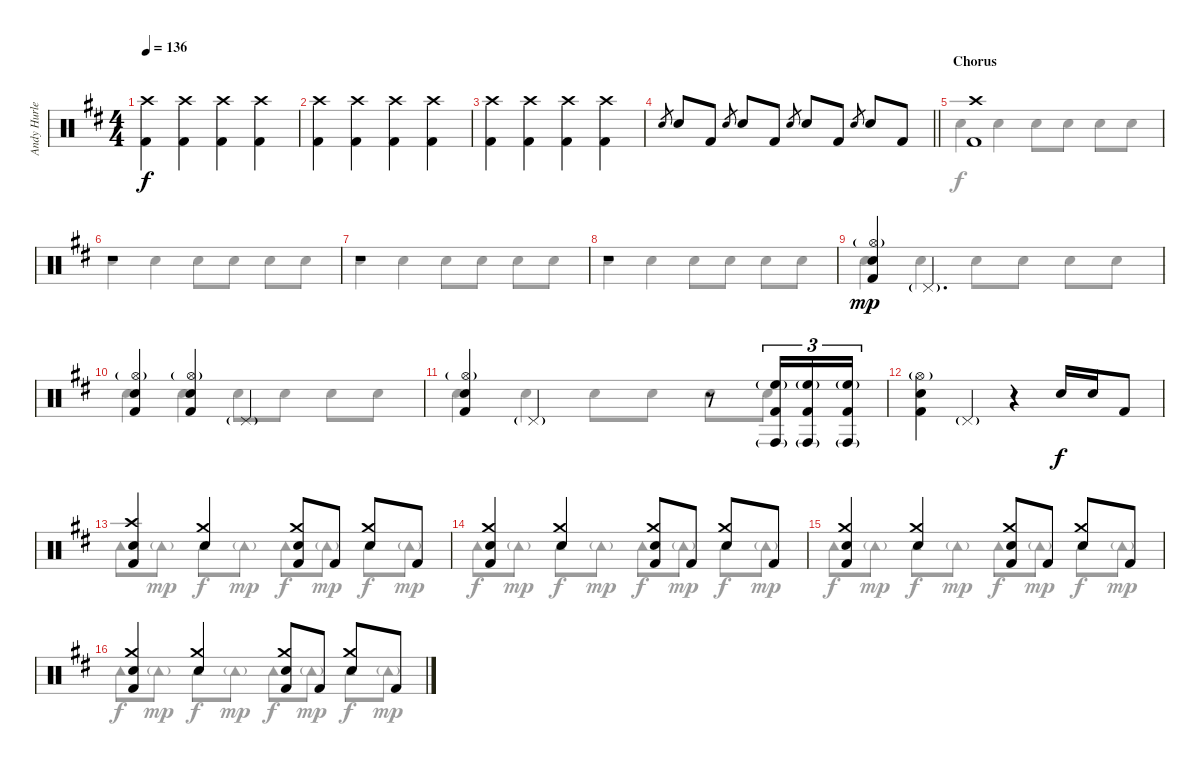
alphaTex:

\track ("Andy Hurley" "Andy Hurle") {instrument percussion}
\staff {score}
\articulation defaults
\voice
\ts (4 4)
\tempo 136
\clef neutral
\ks d
("Crash high (hit)" "Kick (hit) 2").4{dy f} ("Crash high (hit)" "Kick (hit) 2").4 ("Crash high (hit)" "Kick (hit) 2").4 ("Crash high (hit)" "Kick (hit) 2").4 |
("Crash high (hit)" "Kick (hit) 2").4 ("Crash high (hit)" "Kick (hit) 2").4 ("Crash high (hit)" "Kick (hit) 2").4 ("Crash high (hit)" "Kick (hit) 2").4 |
("Crash high (hit)" "Kick (hit) 2").4 ("Crash high (hit)" "Kick (hit) 2").4 ("Crash high (hit)" "Kick (hit) 2").4 ("Crash high (hit)" "Kick (hit) 2").4 |
\barLineRight lightlight "Snare (hit) 2".8{gr} "Snare (hit) 2".8 "Kick (hit) 2".8 "Snare (hit) 2".8{gr} "Snare (hit) 2".8 "Kick (hit) 2".8 "Snare (hit) 2".8{gr} "Snare (hit) 2".8 "Kick (hit) 2".8 "Snare (hit) 2".8{gr} "Snare (hit) 2".8 "Kick (hit) 2".8
|
\section ("" "Chorus")
("Crash high (hit)" "Kick (hit) 2").1 |
r.1 |
r.1 |
r.1 |
("Hi-Hat (open)"{g} "Snare (hit) 2" "Kick (hit) 2").4{dy mp} "Pedal Hi-Hat (hit)"{g}.2{d} |
("Hi-Hat (open)"{g} "Snare (hit) 2" "Kick (hit) 2").4 ("Hi-Hat (open)"{g} "Snare (hit) 2" "Kick (hit) 2").4 "Pedal Hi-Hat (hit)"{g}.2 |
("Hi-Hat (open)"{g} "Snare (hit) 2" "Kick (hit) 2").4 "Pedal Hi-Hat (hit)"{g}.2 r.8 ("High Floor Tom (hit)"{g} "Conga high (hit)"{g} "Kick (hit) 2").16{tu (3 2)} ("High Floor Tom (hit)"{g} "Conga high (hit)"{g} "Kick (hit) 2").16{tu (3 2)} ("High Floor Tom (hit)"{g} "Conga high (hit)"{g} "Kick (hit) 2").16{tu (3 2)} |
("Hi-Hat (open)"{g} "Snare (hit) 2" "Kick (hit) 2").4 "Pedal Hi-Hat (hit)"{g}.4 r.4 "Snare (hit) 2".16{dy f} "Snare (hit) 2".16 "Kick (hit) 2".8 |
("Crash high (hit)" "Snare (hit) 2" "Kick (hit) 2").4 ("Crash medium (hit)" "Snare (hit) 2").4 ("Crash medium (hit)" "Snare (hit) 2" "Kick (hit) 2").8 "Kick (hit) 2".8 ("Crash medium (hit)" "Snare (hit) 2").8 "Kick (hit) 2".8 |
("Crash medium (hit)" "Snare (hit) 2" "Kick (hit) 2").4 ("Crash medium (hit)" "Snare (hit) 2").4 ("Crash medium (hit)" "Snare (hit) 2" "Kick (hit) 2").8 "Kick (hit) 2".8 ("Crash medium (hit)" "Snare (hit) 2").8 "Kick (hit) 2".8 |
("Crash medium (hit)" "Snare (hit) 2" "Kick (hit) 2").4 ("Crash medium (hit)" "Snare (hit) 2").4 ("Crash medium (hit)" "Snare (hit) 2" "Kick (hit) 2").8 "Kick (hit) 2".8 ("Crash medium (hit)" "Snare (hit) 2").8 "Kick (hit) 2".8 |
("Crash medium (hit)" "Snare (hit) 2" "Kick (hit) 2").4 ("Crash medium (hit)" "Snare (hit) 2").4 ("Crash medium (hit)" "Snare (hit) 2" "Kick (hit) 2").8 "Kick (hit) 2".8 ("Crash medium (hit)" "Snare (hit) 2").8 "Kick (hit) 2".8
\voice
\clef neutral
\ottava regular
\simile none
\ks d
|
|
|
\barLineRight lightlight
|
"Hand Clap (hit)".4{dy f} "Hand Clap (hit)".4 "Hand Clap (hit)".8 "Hand Clap (hit)".8 "Hand Clap (hit)".8 "Hand Clap (hit)".8 |
"Hand Clap (hit)".4 "Hand Clap (hit)".4 "Hand Clap (hit)".8 "Hand Clap (hit)".8 "Hand Clap (hit)".8 "Hand Clap (hit)".8 |
"Hand Clap (hit)".4 "Hand Clap (hit)".4 "Hand Clap (hit)".8 "Hand Clap (hit)".8 "Hand Clap (hit)".8 "Hand Clap (hit)".8 |
"Hand Clap (hit)".4 "Hand Clap (hit)".4 "Hand Clap (hit)".8 "Hand Clap (hit)".8 "Hand Clap (hit)".8 "Hand Clap (hit)".8 |
"Hand Clap (hit)".4 "Hand Clap (hit)".4 "Hand Clap (hit)".8 "Hand Clap (hit)".8 "Hand Clap (hit)".8 "Hand Clap (hit)".8 |
"Hand Clap (hit)".4 "Hand Clap (hit)".4 "Hand Clap (hit)".8 "Hand Clap (hit)".8 "Hand Clap (hit)".8 "Hand Clap (hit)".8 |
"Hand Clap (hit)".4 "Hand Clap (hit)".4 "Hand Clap (hit)".8 "Hand Clap (hit)".8 "Hand Clap (hit)".8 "Hand Clap (hit)".8 |
|
"Tambourine (hit)".8 "Tambourine (hit)"{g}.8{dy mp} "Tambourine (hit)".8{dy f} "Tambourine (hit)"{g}.8{dy mp} "Tambourine (hit)".8{dy f} "Tambourine (hit)"{g}.8{dy mp} "Tambourine (hit)".8{dy f} "Tambourine (hit)"{g}.8{dy mp} |
"Tambourine (hit)".8{dy f} "Tambourine (hit)"{g}.8{dy mp} "Tambourine (hit)".8{dy f} "Tambourine (hit)"{g}.8{dy mp} "Tambourine (hit)".8{dy f} "Tambourine (hit)"{g}.8{dy mp} "Tambourine (hit)".8{dy f} "Tambourine (hit)"{g}.8{dy mp} |
"Tambourine (hit)".8{dy f} "Tambourine (hit)"{g}.8{dy mp} "Tambourine (hit)".8{dy f} "Tambourine (hit)"{g}.8{dy mp} "Tambourine (hit)".8{dy f} "Tambourine (hit)"{g}.8{dy mp} "Tambourine (hit)".8{dy f} "Tambourine (hit)"{g}.8{dy mp} |
"Tambourine (hit)".8{dy f} "Tambourine (hit)"{g}.8{dy mp} "Tambourine (hit)".8{dy f} "Tambourine (hit)"{g}.8{dy mp} "Tambourine (hit)".8{dy f} "Tambourine (hit)"{g}.8{dy mp} "Tambourine (hit)".8{dy f} "Tambourine (hit)"{g}.8{dy mp}
